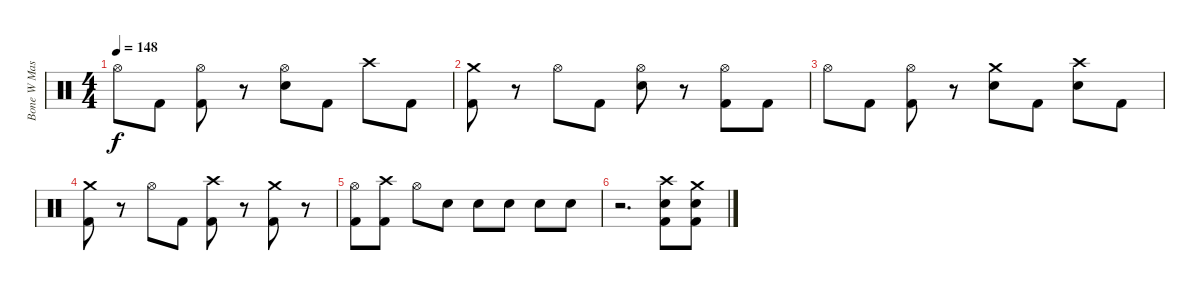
\track ("Bone W Mashine" "Bone W Mas") {instrument percussion}
\staff {score}
\articulation defaults
\ts (4 4)
\tempo 148
\clef neutral
\ks c "Hi-Hat (open)".8{dy f} "Kick (hit) 2".8
("Hi-Hat (open)" "Kick (hit) 2").8 r.8 ("Hi-Hat (open)" "Electric Snare (hit)").8 "Kick (hit) 2".8 "Crash high (hit)".8 "Kick (hit) 2".8 |
("Crash medium (hit)" "Kick (hit) 2").8 r.8 "Hi-Hat (open)".8 "Kick (hit) 2".8 ("Hi-Hat (open)" "Electric Snare (hit)").8 r.8 ("Hi-Hat (open)" "Kick (hit) 2").8 "Kick (hit) 2".8 |
"Hi-Hat (open)".8 "Kick (hit) 2".8 ("Hi-Hat (open)" "Kick (hit) 2").8 r.8 ("Crash medium (hit)" "Electric Snare (hit)").8 "Kick (hit) 2".8 ("Crash high (hit)" "Electric Snare (hit)").8 "Kick (hit) 2".8 |
("Crash medium (hit)" "Kick (hit) 2").8 r.8 "Hi-Hat (open)".8 "Kick (hit) 2".8 ("Crash high (hit)" "Kick (hit) 2").8 r.8 ("Crash medium (hit)" "Kick (hit) 2").8 r.8 |
("Hi-Hat (open)" "Kick (hit) 2").8 ("Crash high (hit)" "Kick (hit) 2").8 "Hi-Hat (open)".8 "Electric Snare (hit)".8 "Electric Snare (hit)".8 "Electric Snare (hit)".8 "Electric Snare (hit)".8 "Electric Snare (hit)".8 |
r.2{d} ("Crash high (hit)" "Electric Snare (hit)" "Kick (hit) 2").8 ("Crash medium (hit)" "Electric Snare (hit)" "Kick (hit) 2").8
